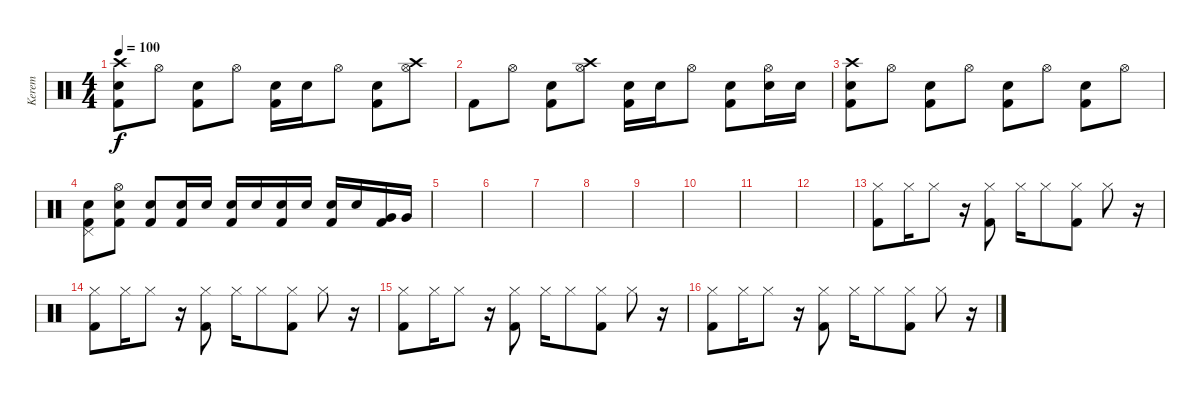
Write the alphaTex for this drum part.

\track ("Kerem" "Kerem") {instrument percussion}
\staff {score}
\articulation defaults
\ts (4 4)
\tempo 100
\clef neutral
\ks c
("Crash high (hit)" "Electric Snare (hit)" "Kick (hit) 2").8{dy f} "Hi-Hat (open)".8 ("Electric Snare (hit)" "Kick (hit) 2").8 "Hi-Hat (open)".8 ("Electric Snare (hit)" "Kick (hit) 2").16 "Electric Snare (hit)".16 "Hi-Hat (open)".8 ("Electric Snare (hit)" "Kick (hit) 2").8 ("Crash high (hit)" "Hi-Hat (open)").8 |
"Kick (hit) 2".8 "Hi-Hat (open)".8 ("Electric Snare (hit)" "Kick (hit) 2").8 ("Crash high (hit)" "Hi-Hat (open)").8 ("Electric Snare (hit)" "Kick (hit) 2").16 "Electric Snare (hit)".16 "Hi-Hat (open)".8 ("Electric Snare (hit)" "Kick (hit) 2").8 ("Electric Snare (hit)" "Hi-Hat (open)").16 "Electric Snare (hit)".16 |
("Crash high (hit)" "Electric Snare (hit)" "Kick (hit) 2").8 "Hi-Hat (open)".8 ("Electric Snare (hit)" "Kick (hit) 2").8 "Hi-Hat (open)".8 ("Electric Snare (hit)" "Kick (hit) 2").8 "Hi-Hat (open)".8 ("Electric Snare (hit)" "Kick (hit) 2").8 "Hi-Hat (open)".8 |
("Pedal Hi-Hat (hit)" "Electric Snare (hit)" "Kick (hit) 2").8 ("Electric Snare (hit)" "Hi-Hat (open)" "Kick (hit) 2").8 ("Electric Snare (hit)" "Kick (hit) 2").8 ("Electric Snare (hit)" "Kick (hit) 2").16 "Electric Snare (hit)".16 ("Electric Snare (hit)" "Kick (hit) 2").16 "Electric Snare (hit)".16 ("Electric Snare (hit)" "Kick (hit) 2").16 "Electric Snare (hit)".16 ("Electric Snare (hit)" "Kick (hit) 2").16 "Electric Snare (hit)".16 ("Very Low Tom (hit)" "Kick (hit) 2").16 "Very Low Tom (hit)".16 |
|
|
|
|
|
|
|
|
("Hi-Hat (closed)" "Kick (hit) 2").8 "Hi-Hat (closed)".16 "Hi-Hat (closed)".8 r.16 ("Hi-Hat (closed)" "Kick (hit) 2").8 "Hi-Hat (closed)".16 "Hi-Hat (closed)".8 ("Hi-Hat (closed)" "Kick (hit) 2").8 "Hi-Hat (closed)".8 r.16 |
("Hi-Hat (closed)" "Kick (hit) 2").8 "Hi-Hat (closed)".16 "Hi-Hat (closed)".8 r.16 ("Hi-Hat (closed)" "Kick (hit) 2").8 "Hi-Hat (closed)".16 "Hi-Hat (closed)".8 ("Hi-Hat (closed)" "Kick (hit) 2").8 "Hi-Hat (closed)".8 r.16 |
("Hi-Hat (closed)" "Kick (hit) 2").8 "Hi-Hat (closed)".16 "Hi-Hat (closed)".8 r.16 ("Hi-Hat (closed)" "Kick (hit) 2").8 "Hi-Hat (closed)".16 "Hi-Hat (closed)".8 ("Hi-Hat (closed)" "Kick (hit) 2").8 "Hi-Hat (closed)".8 r.16 |
("Hi-Hat (closed)" "Kick (hit) 2").8 "Hi-Hat (closed)".16 "Hi-Hat (closed)".8 r.16 ("Hi-Hat (closed)" "Kick (hit) 2").8 "Hi-Hat (closed)".16 "Hi-Hat (closed)".8 ("Hi-Hat (closed)" "Kick (hit) 2").8 "Hi-Hat (closed)".8 r.16
